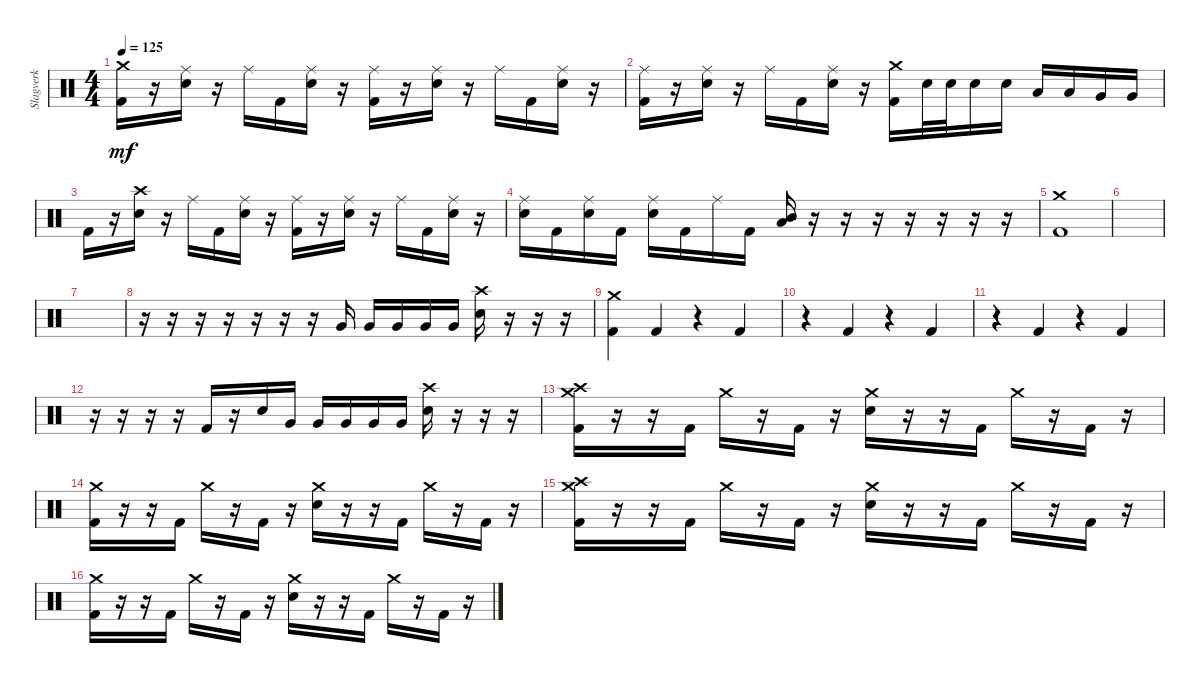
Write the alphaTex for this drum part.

\track ("Slagverk" "Slagverk") {instrument percussion}
\staff {score}
\articulation defaults
\ts (4 4)
\tempo 125
\clef neutral
\ks c
("Crash medium (hit)" "Kick (hit) 2").16{dy mf} r.16 ("Ride (middle)" "Electric Snare (hit)").16 r.16 "Ride (middle)".16 "Kick (hit) 2".16 ("Ride (middle)" "Electric Snare (hit)").16 r.16 ("Ride (middle)" "Kick (hit) 2").16 r.16 ("Ride (middle)" "Electric Snare (hit)").16 r.16 "Ride (middle)".16 "Kick (hit) 2".16 ("Ride (middle)" "Electric Snare (hit)").16 r.16 |
("Ride (middle)" "Kick (hit) 2").16 r.16 ("Ride (middle)" "Electric Snare (hit)").16 r.16 "Ride (middle)".16 "Kick (hit) 2".16 ("Ride (middle)" "Electric Snare (hit)").16 r.16 ("Crash medium (hit)" "Kick (hit) 2").16 "Electric Snare (hit)".32 "Electric Snare (hit)".32 "Electric Snare (hit)".16 "Electric Snare (hit)".16 "Low Tom (hit)".16 "Low Tom (hit)".16 "Very Low Tom (hit)".16 "Very Low Tom (hit)".16 |
"Kick (hit) 2".16 r.16 ("Crash high (hit)" "Electric Snare (hit)").16 r.16 "Ride (middle)".16 "Kick (hit) 2".16 ("Ride (middle)" "Electric Snare (hit)").16 r.16 ("Ride (middle)" "Kick (hit) 2").16 r.16 ("Ride (middle)" "Electric Snare (hit)").16 r.16 "Ride (middle)".16 "Kick (hit) 2".16 ("Ride (middle)" "Electric Snare (hit)").16 r.16 |
("Ride (middle)" "Electric Snare (hit)").16 "Kick (hit) 2".16 ("Ride (middle)" "Electric Snare (hit)").16 "Kick (hit) 2".16 ("Ride (middle)" "Electric Snare (hit)").16 "Kick (hit) 2".16 "Ride (middle)".16 "Kick (hit) 2".16 ("Mid Tom (hit)" "Low Tom (hit)").16 r.16 r.16 r.16 r.16 r.16 r.16 r.16 |
("Crash medium (hit)" "Kick (hit) 2").1 |
|
|
r.16 r.16 r.16 r.16 r.16 r.16 r.16 "Very Low Tom (hit)".16 "Very Low Tom (hit)".16 "Very Low Tom (hit)".16 "Very Low Tom (hit)".16 "Very Low Tom (hit)".16 ("Crash high (hit)" "Electric Snare (hit)").16 r.16 r.16 r.16 |
("Crash medium (hit)" "Kick (hit) 2").4 "Kick (hit) 2".4 r.4 "Kick (hit) 2".4 |
r.4 "Kick (hit) 2".4 r.4 "Kick (hit) 2".4 |
r.4 "Kick (hit) 2".4 r.4 "Kick (hit) 2".4 |
r.16 r.16 r.16 r.16 "Kick (hit) 2".16 r.16 "Electric Snare (hit)".16 "Very Low Tom (hit)".16 "Very Low Tom (hit)".16 "Very Low Tom (hit)".16 "Very Low Tom (hit)".16 "Very Low Tom (hit)".16 ("Crash high (hit)" "Electric Snare (hit)").16 r.16 r.16 r.16 |
("Crash medium (hit)" "Crash high (hit)" "Kick (hit) 2").16 r.16 r.16 "Kick (hit) 2".16 "Crash medium (hit)".16 r.16 "Kick (hit) 2".16 r.16 ("Crash medium (hit)" "Electric Snare (hit)").16 r.16 r.16 "Kick (hit) 2".16 "Crash medium (hit)".16 r.16 "Kick (hit) 2".16 r.16 |
("Crash medium (hit)" "Kick (hit) 2").16 r.16 r.16 "Kick (hit) 2".16 "Crash medium (hit)".16 r.16 "Kick (hit) 2".16 r.16 ("Crash medium (hit)" "Electric Snare (hit)").16 r.16 r.16 "Kick (hit) 2".16 "Crash medium (hit)".16 r.16 "Kick (hit) 2".16 r.16 |
("Crash medium (hit)" "Crash high (hit)" "Kick (hit) 2").16 r.16 r.16 "Kick (hit) 2".16 "Crash medium (hit)".16 r.16 "Kick (hit) 2".16 r.16 ("Crash medium (hit)" "Electric Snare (hit)").16 r.16 r.16 "Kick (hit) 2".16 "Crash medium (hit)".16 r.16 "Kick (hit) 2".16 r.16 |
("Crash medium (hit)" "Kick (hit) 2").16 r.16 r.16 "Kick (hit) 2".16 "Crash medium (hit)".16 r.16 "Kick (hit) 2".16 r.16 ("Crash medium (hit)" "Electric Snare (hit)").16 r.16 r.16 "Kick (hit) 2".16 "Crash medium (hit)".16 r.16 "Kick (hit) 2".16 r.16
